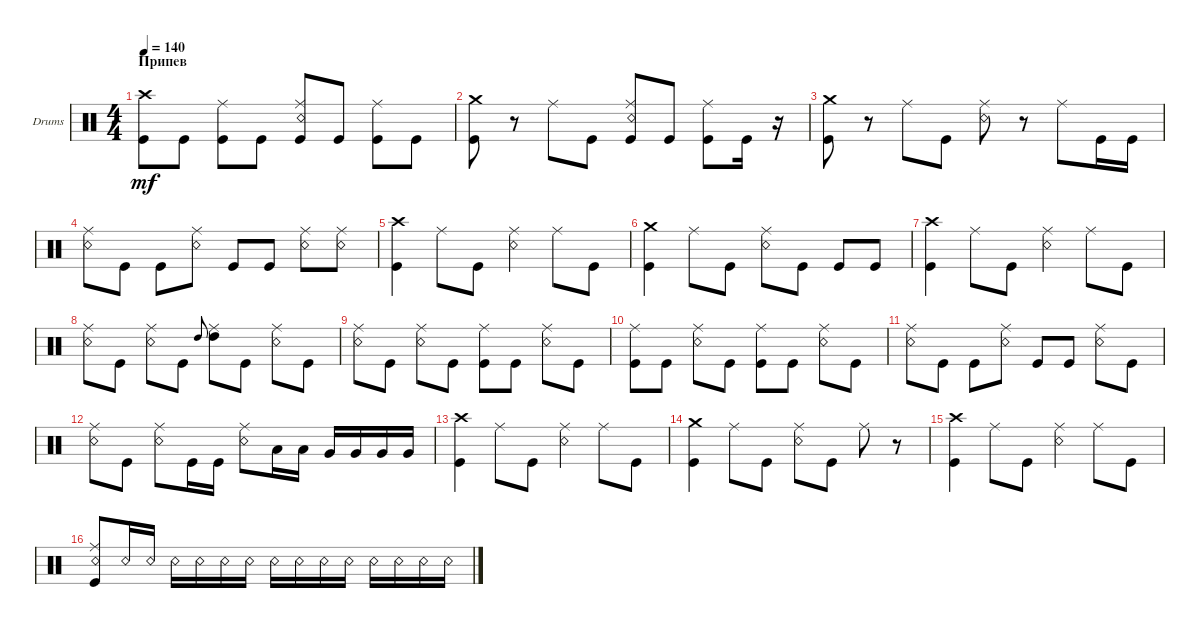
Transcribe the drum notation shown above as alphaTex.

\defaultSystemsLayout 4
\bracketExtendMode groupsimilarinstruments
\firstSystemTrackNameOrientation horizontal
\otherSystemsTrackNameOrientation horizontal
\track ("Drumkit" "Drums") {instrument percussion}
\staff {score}
\articulation defaults
\ts (4 4)
\section ("" "Припев")
\tempo 140
\clef neutral
\ks c
("Kick (hit)" "Crash high (hit)").8{dy mf} "Kick (hit)".8 ("Kick (hit)" "Ride (middle)").8 "Kick (hit)".8 ("Snare (rim shot)" "Ride (middle)" "Kick (hit)").8 "Kick (hit)".8 ("Kick (hit)" "Ride (middle)").8 "Kick (hit)".8 |
("Kick (hit)" "Crash medium (hit)").8 r.8 "Ride (middle)".8 "Kick (hit)".8 ("Snare (rim shot)" "Ride (middle)" "Kick (hit)").8 "Kick (hit)".8 ("Kick (hit)" "Ride (middle)").8 "Kick (hit)".16 r.16 |
("Kick (hit)" "Crash medium (hit)").8 r.8 "Ride (middle)".8 "Kick (hit)".8 ("Snare (rim shot)" "Ride (middle)").8 r.8 "Ride (middle)".8 "Kick (hit)".16 "Kick (hit)".16 |
("Snare (rim shot)" "Ride (middle)").8 "Kick (hit)".8 "Kick (hit)".8 ("Snare (rim shot)" "Ride (middle)").8 "Kick (hit)".8 "Kick (hit)".8 ("Snare (rim shot)" "Ride (middle)").8 ("Snare (rim shot)" "Ride (middle)").8 |
("Kick (hit)" "Crash high (hit)").4 "Ride (middle)".8 "Kick (hit)".8 ("Snare (rim shot)" "Ride (middle)").4 "Ride (middle)".8 "Kick (hit)".8 |
("Kick (hit)" "Crash medium (hit)").4 "Ride (middle)".8 "Kick (hit)".8 ("Snare (rim shot)" "Ride (middle)").8 "Kick (hit)".8 "Kick (hit)".8 "Kick (hit)".8 |
("Kick (hit)" "Crash high (hit)").4 "Ride (middle)".8 "Kick (hit)".8 ("Snare (rim shot)" "Ride (middle)").4 "Ride (middle)".8 "Kick (hit)".8 |
("Snare (rim shot)" "Ride (middle)").8 "Kick (hit)".8 ("Snare (rim shot)" "Ride (middle)").8 "Kick (hit)".8 "High Tom (hit)".8{gr onbeat} ("Ride (middle)" "High Tom (hit)").8 "Kick (hit)".8 ("Snare (rim shot)" "Ride (middle)").8 "Kick (hit)".8 |
("Snare (rim shot)" "Ride (middle)").8 "Kick (hit)".8 ("Snare (rim shot)" "Ride (middle)").8 "Kick (hit)".8 ("Ride (middle)" "Kick (hit)").8 "Kick (hit)".8 ("Snare (rim shot)" "Ride (middle)").8 "Kick (hit)".8 |
("Ride (middle)" "Kick (hit)").8 "Kick (hit)".8 ("Snare (rim shot)" "Ride (middle)").8 "Kick (hit)".8 ("Ride (middle)" "Kick (hit)").8 "Kick (hit)".8 ("Snare (rim shot)" "Ride (middle)").8 "Kick (hit)".8 |
("Snare (rim shot)" "Ride (middle)").8 "Kick (hit)".8 "Kick (hit)".8 ("Snare (rim shot)" "Ride (middle)").8 "Kick (hit)".8 "Kick (hit)".8 ("Snare (rim shot)" "Ride (middle)").8 "Kick (hit)".8 |
("Snare (rim shot)" "Ride (middle)").8 "Kick (hit)".8 ("Snare (rim shot)" "Ride (middle)").8 "Kick (hit)".16 "Kick (hit)".16 ("Snare (rim shot)" "Ride (middle)").8 "Low Tom (hit)".16 "Low Tom (hit)".16 "Very Low Tom (hit)".16 "Very Low Tom (hit)".16 "Very Low Tom (hit)".16 "Very Low Tom (hit)".16 |
("Kick (hit)" "Crash high (hit)").4 "Ride (middle)".8 "Kick (hit)".8 ("Snare (rim shot)" "Ride (middle)").4 "Ride (middle)".8 "Kick (hit)".8 |
("Kick (hit)" "Crash medium (hit)").4 "Ride (middle)".8 "Kick (hit)".8 ("Snare (rim shot)" "Ride (middle)").8 "Kick (hit)".8 "Ride (middle)".8 r.8 |
("Kick (hit)" "Crash high (hit)").4 "Ride (middle)".8 "Kick (hit)".8 ("Snare (rim shot)" "Ride (middle)").4 "Ride (middle)".8 "Kick (hit)".8 |
("Kick (hit)" "Snare (rim shot)" "Ride (middle)").8 "Snare (rim shot)".16 "Snare (rim shot)".16 "Snare (rim shot)".16 "Snare (rim shot)".16 "Snare (rim shot)".16 "Snare (rim shot)".16 "Snare (rim shot)".16 "Snare (rim shot)".16 "Snare (rim shot)".16 "Snare (rim shot)".16 "Snare (rim shot)".16 "Snare (rim shot)".16 "Snare (rim shot)".16 "Snare (rim shot)".16
